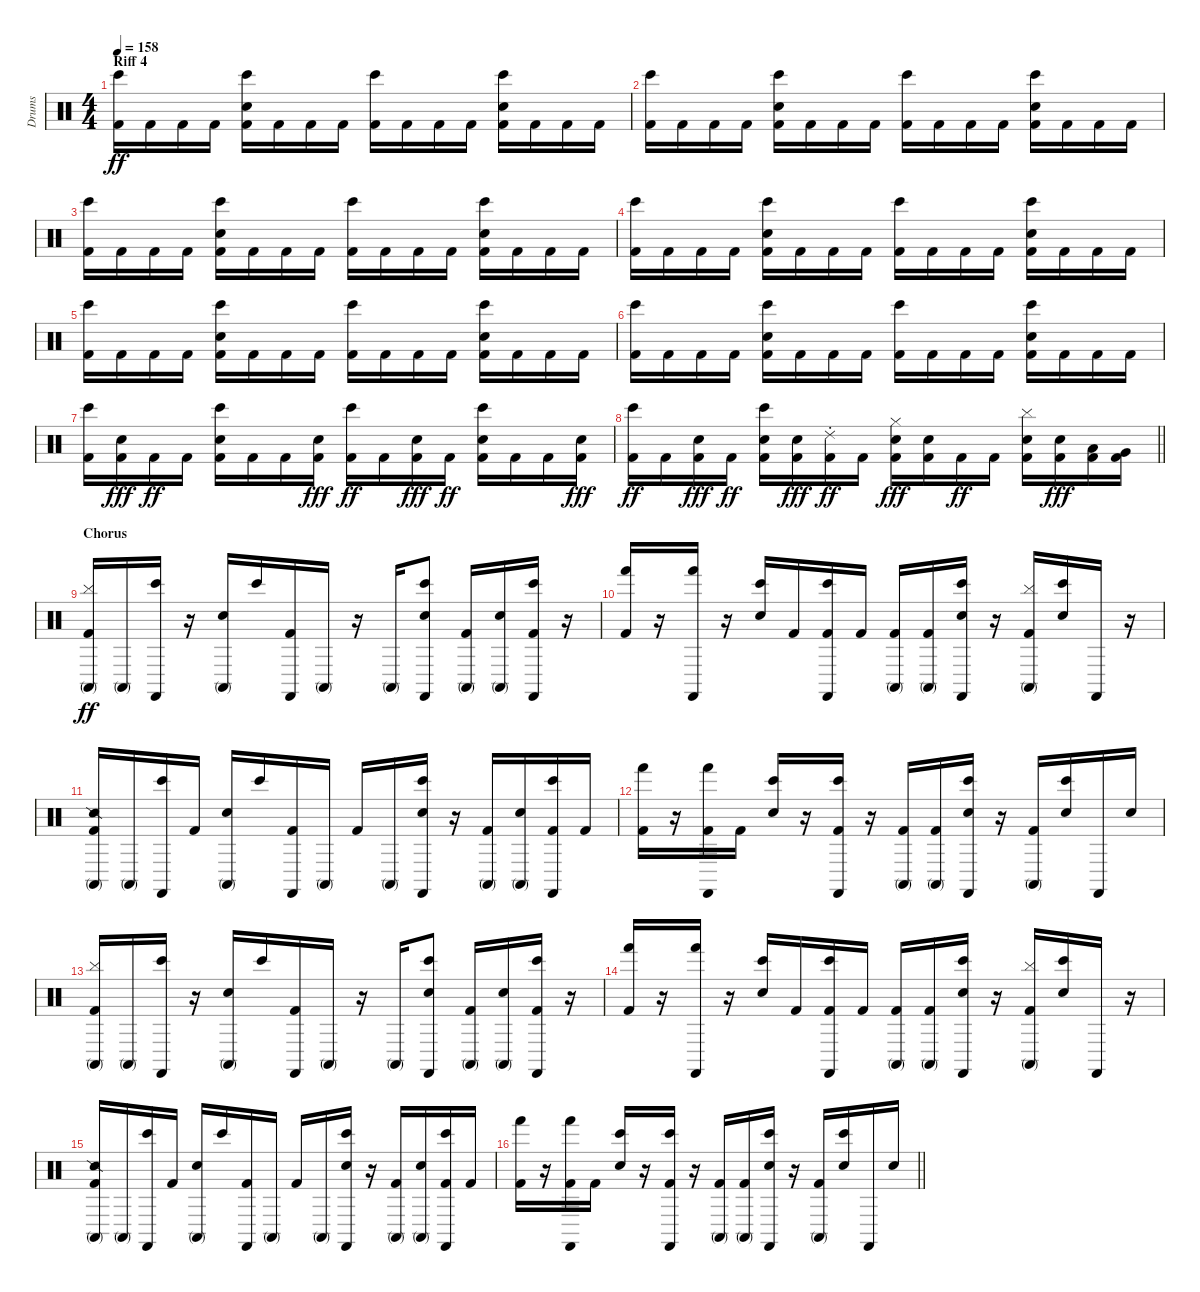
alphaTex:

\track ("Drums" "Drums") {instrument percussion}
\staff {score}
\articulation defaults
\ts (4 4)
\section ("" "Riff 4")
\tempo 158
\clef neutral
\ks c
("Bongo High (hit)" "Kick (hit) 2").16{dy ff} "Kick (hit) 2".16 "Kick (hit) 2".16 "Kick (hit) 2".16 ("Bongo High (hit)" "Kick (hit) 2" "Snare (hit) 2").16 "Kick (hit) 2".16 "Kick (hit) 2".16 "Kick (hit) 2".16 ("Bongo High (hit)" "Kick (hit) 2").16 "Kick (hit) 2".16 "Kick (hit) 2".16 "Kick (hit) 2".16 ("Bongo High (hit)" "Kick (hit) 2" "Snare (hit) 2").16 "Kick (hit) 2".16 "Kick (hit) 2".16 "Kick (hit) 2".16 |
("Bongo High (hit)" "Kick (hit) 2").16 "Kick (hit) 2".16 "Kick (hit) 2".16 "Kick (hit) 2".16 ("Bongo High (hit)" "Kick (hit) 2" "Snare (hit) 2").16 "Kick (hit) 2".16 "Kick (hit) 2".16 "Kick (hit) 2".16 ("Bongo High (hit)" "Kick (hit) 2").16 "Kick (hit) 2".16 "Kick (hit) 2".16 "Kick (hit) 2".16 ("Bongo High (hit)" "Kick (hit) 2" "Snare (hit) 2").16 "Kick (hit) 2".16 "Kick (hit) 2".16 "Kick (hit) 2".16 |
("Bongo High (hit)" "Kick (hit) 2").16 "Kick (hit) 2".16 "Kick (hit) 2".16 "Kick (hit) 2".16 ("Bongo High (hit)" "Kick (hit) 2" "Snare (hit) 2").16 "Kick (hit) 2".16 "Kick (hit) 2".16 "Kick (hit) 2".16 ("Bongo High (hit)" "Kick (hit) 2").16 "Kick (hit) 2".16 "Kick (hit) 2".16 "Kick (hit) 2".16 ("Bongo High (hit)" "Kick (hit) 2" "Snare (hit) 2").16 "Kick (hit) 2".16 "Kick (hit) 2".16 "Kick (hit) 2".16 |
("Bongo High (hit)" "Kick (hit) 2").16 "Kick (hit) 2".16 "Kick (hit) 2".16 "Kick (hit) 2".16 ("Bongo High (hit)" "Kick (hit) 2" "Snare (hit) 2").16 "Kick (hit) 2".16 "Kick (hit) 2".16 "Kick (hit) 2".16 ("Bongo High (hit)" "Kick (hit) 2").16 "Kick (hit) 2".16 "Kick (hit) 2".16 "Kick (hit) 2".16 ("Bongo High (hit)" "Kick (hit) 2" "Snare (hit) 2").16 "Kick (hit) 2".16 "Kick (hit) 2".16 "Kick (hit) 2".16 |
("Bongo High (hit)" "Kick (hit) 2").16 "Kick (hit) 2".16 "Kick (hit) 2".16 "Kick (hit) 2".16 ("Bongo High (hit)" "Kick (hit) 2" "Snare (hit) 2").16 "Kick (hit) 2".16 "Kick (hit) 2".16 "Kick (hit) 2".16 ("Bongo High (hit)" "Kick (hit) 2").16 "Kick (hit) 2".16 "Kick (hit) 2".16 "Kick (hit) 2".16 ("Bongo High (hit)" "Kick (hit) 2" "Snare (hit) 2").16 "Kick (hit) 2".16 "Kick (hit) 2".16 "Kick (hit) 2".16 |
("Bongo High (hit)" "Kick (hit) 2").16 "Kick (hit) 2".16 "Kick (hit) 2".16 "Kick (hit) 2".16 ("Bongo High (hit)" "Kick (hit) 2" "Snare (hit) 2").16 "Kick (hit) 2".16 "Kick (hit) 2".16 "Kick (hit) 2".16 ("Bongo High (hit)" "Kick (hit) 2").16 "Kick (hit) 2".16 "Kick (hit) 2".16 "Kick (hit) 2".16 ("Bongo High (hit)" "Kick (hit) 2" "Snare (hit) 2").16 "Kick (hit) 2".16 "Kick (hit) 2".16 "Kick (hit) 2".16 |
("Bongo High (hit)" "Kick (hit) 2").16 ("Kick (hit) 2" "Snare (hit) 2").16{dy fff} "Kick (hit) 2".16{dy ff} "Kick (hit) 2".16 ("Bongo High (hit)" "Kick (hit) 2" "Snare (hit) 2").16 "Kick (hit) 2".16 "Kick (hit) 2".16 ("Kick (hit) 2" "Snare (hit) 2").16{dy fff} ("Bongo High (hit)" "Kick (hit) 2").16{dy ff} "Kick (hit) 2".16 ("Kick (hit) 2" "Snare (hit) 2").16{dy fff} "Kick (hit) 2".16{dy ff} ("Bongo High (hit)" "Kick (hit) 2" "Snare (hit) 2").16 "Kick (hit) 2".16 "Kick (hit) 2".16 ("Kick (hit) 2" "Snare (hit) 2").16{dy fff} |
\barLineRight lightlight
("Bongo High (hit)" "Kick (hit) 2").16{dy ff} "Kick (hit) 2".16 ("Kick (hit) 2" "Snare (hit) 2").16{dy fff} "Kick (hit) 2".16{dy ff} ("Bongo High (hit)" "Kick (hit) 2" "Snare (hit) 2").16 ("Kick (hit) 2" "Snare (hit) 2").16{dy fff} ("Ride (choke) 2" "Kick (hit) 2").16{dy ff} "Kick (hit) 2".16 ("Hi-Hat (closed)" "Kick (hit) 2" "Snare (hit) 2").16{dy fff} ("Kick (hit) 2" "Snare (hit) 2").16 "Kick (hit) 2".16{dy ff} "Kick (hit) 2".16 ("Cymbal (hit)" "Kick (hit) 2" "Snare (hit) 2").16 ("Kick (hit) 2" "Snare (hit) 2").16{dy fff} ("Kick (hit) 2" "Low Tom (hit)").16 ("Kick (hit) 2" "Very Low Tom (hit)").16 |
\section ("" "Chorus")
("Cymbal (hit)" "Kick (hit) 2" "Conga high (mute)").16{dy ff} "Conga high (mute)".16 ("Bongo High (hit)" "Castanets (hit)").16 r.16 ("Snare (hit) 2" "Conga high (mute)").16 "Bongo High (hit)".16 ("Kick (hit) 2" "Castanets (hit)").16 "Conga high (mute)".16 r.16 "Conga high (mute)".16 ("Snare (hit) 2" "Bongo High (hit)" "Castanets (hit)").8 ("Kick (hit) 2" "Conga high (mute)").16 ("Snare (hit) 2" "Conga high (mute)").16 ("Kick (hit) 2" "Bongo High (hit)" "Castanets (hit)").16 r.16 |
("Kick (hit) 2" "Hand (hit)").16 r.16 ("Hand (hit)" "Castanets (hit)").16 r.16 ("Snare (hit) 2" "Bongo High (hit)").16 "Kick (hit) 2".16 ("Kick (hit) 2" "Bongo High (hit)" "Castanets (hit)").16 "Kick (hit) 2".16 ("Kick (hit) 2" "Conga high (mute)").16 ("Kick (hit) 2" "Conga high (mute)").16 ("Snare (hit) 2" "Bongo High (hit)" "Castanets (hit)").16 r.16 ("Cymbal (hit)" "Kick (hit) 2" "Conga high (mute)").16 ("Snare (hit) 2" "Bongo High (hit)").16 "Castanets (hit)".16 r.16 |
("Snare (side stick) 2" "Kick (hit) 2" "Conga high (mute)").16 "Conga high (mute)".16 ("Bongo High (hit)" "Castanets (hit)").16 "Kick (hit) 2".16 ("Snare (hit) 2" "Conga high (mute)").16 "Bongo High (hit)".16 ("Kick (hit) 2" "Castanets (hit)").16 "Conga high (mute)".16 "Kick (hit) 2".16 "Conga high (mute)".16 ("Snare (hit) 2" "Bongo High (hit)" "Castanets (hit)").16 r.16 ("Kick (hit) 2" "Conga high (mute)").16 ("Snare (hit) 2" "Conga high (mute)").16 ("Kick (hit) 2" "Bongo High (hit)" "Castanets (hit)").16 "Kick (hit) 2".16 |
("Kick (hit) 2" "Hand (hit)").16 r.16 ("Kick (hit) 2" "Hand (hit)" "Castanets (hit)").16 "Kick (hit) 2".16 ("Snare (hit) 2" "Bongo High (hit)").16 r.16 ("Kick (hit) 2" "Bongo High (hit)" "Castanets (hit)").16 r.16 ("Kick (hit) 2" "Conga high (mute)").16 ("Kick (hit) 2" "Conga high (mute)").16 ("Snare (hit) 2" "Bongo High (hit)" "Castanets (hit)").16 r.16 ("Kick (hit) 2" "Conga high (mute)").16 ("Snare (hit) 2" "Bongo High (hit)").16 "Castanets (hit)".16 "Snare (hit) 2".16 |
("Cymbal (hit)" "Kick (hit) 2" "Conga high (mute)").16 "Conga high (mute)".16 ("Bongo High (hit)" "Castanets (hit)").16 r.16 ("Snare (hit) 2" "Conga high (mute)").16 "Bongo High (hit)".16 ("Kick (hit) 2" "Castanets (hit)").16 "Conga high (mute)".16 r.16 "Conga high (mute)".16 ("Snare (hit) 2" "Bongo High (hit)" "Castanets (hit)").8 ("Kick (hit) 2" "Conga high (mute)").16 ("Snare (hit) 2" "Conga high (mute)").16 ("Kick (hit) 2" "Bongo High (hit)" "Castanets (hit)").16 r.16 |
("Kick (hit) 2" "Hand (hit)").16 r.16 ("Hand (hit)" "Castanets (hit)").16 r.16 ("Snare (hit) 2" "Bongo High (hit)").16 "Kick (hit) 2".16 ("Kick (hit) 2" "Bongo High (hit)" "Castanets (hit)").16 "Kick (hit) 2".16 ("Kick (hit) 2" "Conga high (mute)").16 ("Kick (hit) 2" "Conga high (mute)").16 ("Snare (hit) 2" "Bongo High (hit)" "Castanets (hit)").16 r.16 ("Cymbal (hit)" "Kick (hit) 2" "Conga high (mute)").16 ("Snare (hit) 2" "Bongo High (hit)").16 "Castanets (hit)".16 r.16 |
("Snare (side stick) 2" "Kick (hit) 2" "Conga high (mute)").16 "Conga high (mute)".16 ("Bongo High (hit)" "Castanets (hit)").16 "Kick (hit) 2".16 ("Snare (hit) 2" "Conga high (mute)").16 "Bongo High (hit)".16 ("Kick (hit) 2" "Castanets (hit)").16 "Conga high (mute)".16 "Kick (hit) 2".16 "Conga high (mute)".16 ("Snare (hit) 2" "Bongo High (hit)" "Castanets (hit)").16 r.16 ("Kick (hit) 2" "Conga high (mute)").16 ("Snare (hit) 2" "Conga high (mute)").16 ("Kick (hit) 2" "Bongo High (hit)" "Castanets (hit)").16 "Kick (hit) 2".16 |
\barLineRight lightlight
("Kick (hit) 2" "Hand (hit)").16 r.16 ("Kick (hit) 2" "Hand (hit)" "Castanets (hit)").16 "Kick (hit) 2".16 ("Snare (hit) 2" "Bongo High (hit)").16 r.16 ("Kick (hit) 2" "Bongo High (hit)" "Castanets (hit)").16 r.16 ("Kick (hit) 2" "Conga high (mute)").16 ("Kick (hit) 2" "Conga high (mute)").16 ("Snare (hit) 2" "Bongo High (hit)" "Castanets (hit)").16 r.16 ("Kick (hit) 2" "Conga high (mute)").16 ("Snare (hit) 2" "Bongo High (hit)").16 "Castanets (hit)".16 "Snare (hit) 2".16
